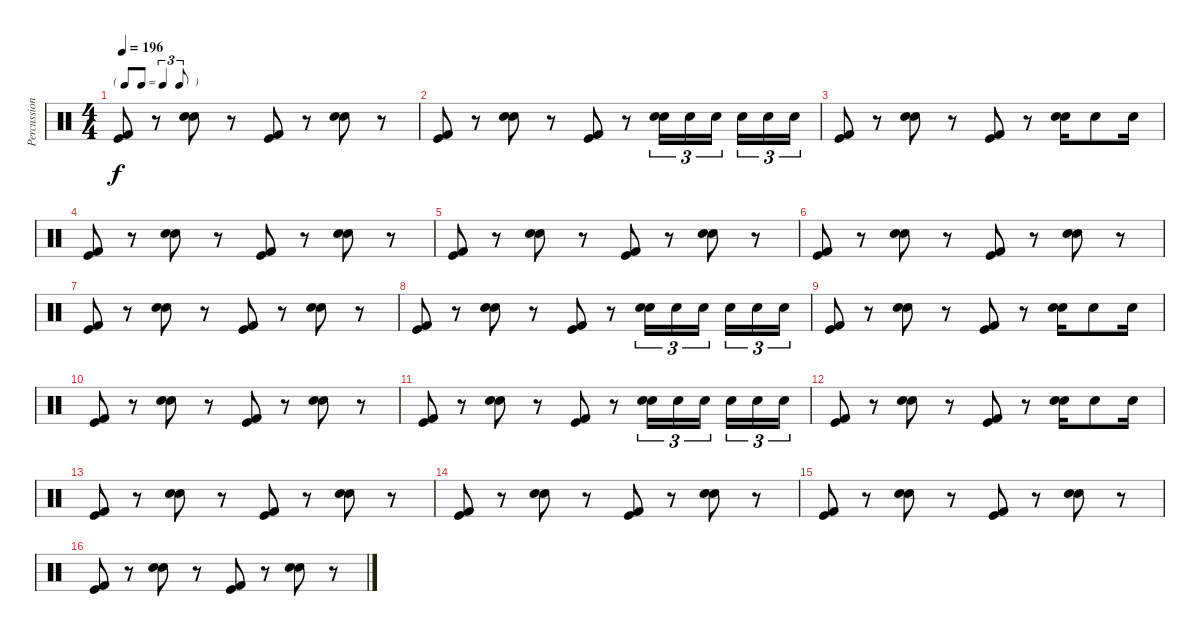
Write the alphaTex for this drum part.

\track ("Percussions" "Percussion") {instrument percussion}
\staff {score}
\articulation defaults
\ts (4 4)
\tf triplet8th
\tempo 196
\clef neutral
\ks c
("Kick (hit) 2" "Kick (hit)").8{dy f} r.8 ("Snare (hit) 2" "Electric Snare (hit)").8 r.8 ("Kick (hit) 2" "Kick (hit)").8 r.8 ("Snare (hit) 2" "Electric Snare (hit)").8 r.8 |
("Kick (hit) 2" "Kick (hit)").8 r.8 ("Snare (hit) 2" "Electric Snare (hit)").8 r.8 ("Kick (hit) 2" "Kick (hit)").8 r.8 ("Hand Clap (hit)" "Electric Snare (hit)").16{tu (3 2)} "Hand Clap (hit)".16{tu (3 2)} "Hand Clap (hit)".16{tu (3 2)} "Hand Clap (hit)".16{tu (3 2)} "Hand Clap (hit)".16{tu (3 2)} "Hand Clap (hit)".16{tu (3 2)} |
("Kick (hit) 2" "Kick (hit)").8 r.8 ("Snare (hit) 2" "Electric Snare (hit)").8 r.8 ("Kick (hit) 2" "Kick (hit)").8 r.8 ("Snare (hit) 2" "Electric Snare (hit)").16 "Hand Clap (hit)".8 "Hand Clap (hit)".16 |
("Kick (hit) 2" "Kick (hit)").8 r.8 ("Snare (hit) 2" "Electric Snare (hit)").8 r.8 ("Kick (hit) 2" "Kick (hit)").8 r.8 ("Snare (hit) 2" "Electric Snare (hit)").8 r.8 |
("Kick (hit) 2" "Kick (hit)").8 r.8 ("Snare (hit) 2" "Electric Snare (hit)").8 r.8 ("Kick (hit) 2" "Kick (hit)").8 r.8 ("Snare (hit) 2" "Electric Snare (hit)").8 r.8 |
("Kick (hit) 2" "Kick (hit)").8 r.8 ("Snare (hit) 2" "Electric Snare (hit)").8 r.8 ("Kick (hit) 2" "Kick (hit)").8 r.8 ("Snare (hit) 2" "Electric Snare (hit)").8 r.8 |
("Kick (hit) 2" "Kick (hit)").8 r.8 ("Snare (hit) 2" "Electric Snare (hit)").8 r.8 ("Kick (hit) 2" "Kick (hit)").8 r.8 ("Snare (hit) 2" "Electric Snare (hit)").8 r.8 |
("Kick (hit) 2" "Kick (hit)").8 r.8 ("Snare (hit) 2" "Electric Snare (hit)").8 r.8 ("Kick (hit) 2" "Kick (hit)").8 r.8 ("Hand Clap (hit)" "Electric Snare (hit)").16{tu (3 2)} "Hand Clap (hit)".16{tu (3 2)} "Hand Clap (hit)".16{tu (3 2)} "Hand Clap (hit)".16{tu (3 2)} "Hand Clap (hit)".16{tu (3 2)} "Hand Clap (hit)".16{tu (3 2)} |
("Kick (hit) 2" "Kick (hit)").8 r.8 ("Snare (hit) 2" "Electric Snare (hit)").8 r.8 ("Kick (hit) 2" "Kick (hit)").8 r.8 ("Snare (hit) 2" "Electric Snare (hit)").16 "Hand Clap (hit)".8 "Hand Clap (hit)".16 |
("Kick (hit) 2" "Kick (hit)").8 r.8 ("Snare (hit) 2" "Electric Snare (hit)").8 r.8 ("Kick (hit) 2" "Kick (hit)").8 r.8 ("Snare (hit) 2" "Electric Snare (hit)").8 r.8 |
("Kick (hit) 2" "Kick (hit)").8 r.8 ("Snare (hit) 2" "Electric Snare (hit)").8 r.8 ("Kick (hit) 2" "Kick (hit)").8 r.8 ("Hand Clap (hit)" "Electric Snare (hit)").16{tu (3 2)} "Hand Clap (hit)".16{tu (3 2)} "Hand Clap (hit)".16{tu (3 2)} "Hand Clap (hit)".16{tu (3 2)} "Hand Clap (hit)".16{tu (3 2)} "Hand Clap (hit)".16{tu (3 2)} |
("Kick (hit) 2" "Kick (hit)").8 r.8 ("Snare (hit) 2" "Electric Snare (hit)").8 r.8 ("Kick (hit) 2" "Kick (hit)").8 r.8 ("Snare (hit) 2" "Electric Snare (hit)").16 "Hand Clap (hit)".8 "Hand Clap (hit)".16 |
("Kick (hit) 2" "Kick (hit)").8 r.8 ("Snare (hit) 2" "Electric Snare (hit)").8 r.8 ("Kick (hit) 2" "Kick (hit)").8 r.8 ("Snare (hit) 2" "Electric Snare (hit)").8 r.8 |
("Kick (hit) 2" "Kick (hit)").8 r.8 ("Snare (hit) 2" "Electric Snare (hit)").8 r.8 ("Kick (hit) 2" "Kick (hit)").8 r.8 ("Snare (hit) 2" "Electric Snare (hit)").8 r.8 |
("Kick (hit) 2" "Kick (hit)").8 r.8 ("Snare (hit) 2" "Electric Snare (hit)").8 r.8 ("Kick (hit) 2" "Kick (hit)").8 r.8 ("Snare (hit) 2" "Electric Snare (hit)").8 r.8 |
("Kick (hit) 2" "Kick (hit)").8 r.8 ("Snare (hit) 2" "Electric Snare (hit)").8 r.8 ("Kick (hit) 2" "Kick (hit)").8 r.8 ("Snare (hit) 2" "Electric Snare (hit)").8 r.8
